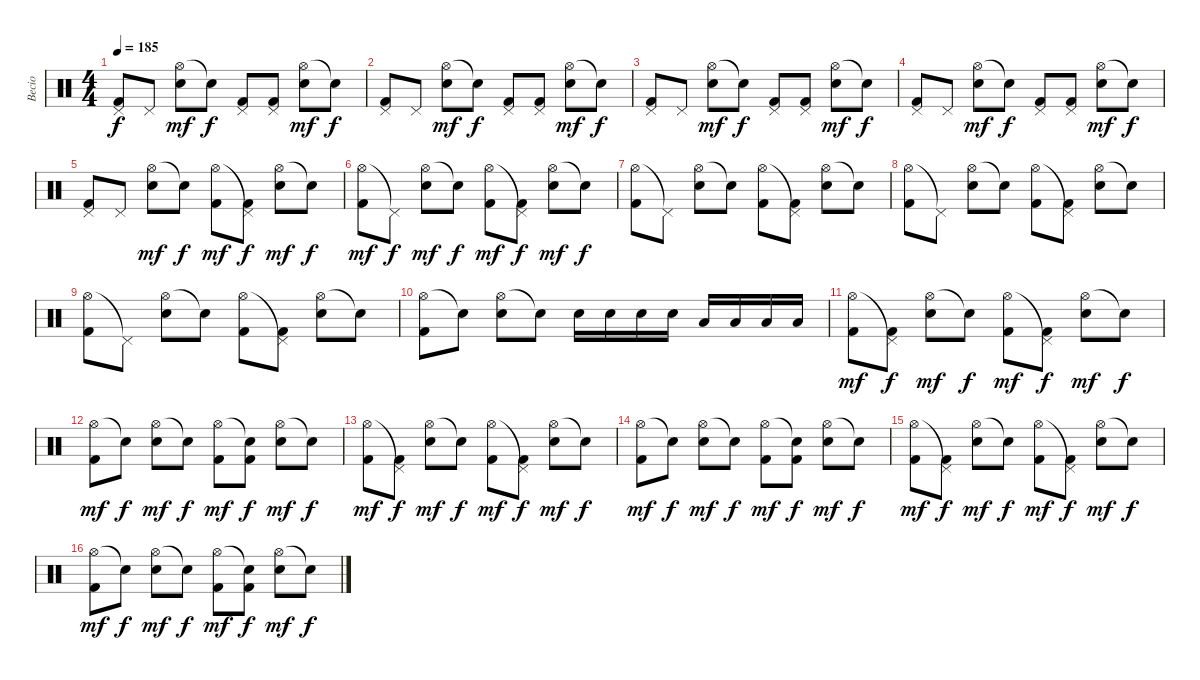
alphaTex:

\track ("Becio" "Becio") {instrument percussion}
\staff {score}
\articulation defaults
\ts (4 4)
\tempo 185
\clef neutral
\ks c
("Pedal Hi-Hat (hit)" "Kick (hit) 2").8{dy f} "Pedal Hi-Hat (hit)".8 ("Hi-Hat (open)" "Electric Snare (hit)").8{dy mf} "Snare (hit)"{t}.8{dy f} ("Pedal Hi-Hat (hit)" "Kick (hit) 2").8 ("Pedal Hi-Hat (hit)" "Kick (hit) 2").8 ("Hi-Hat (open)" "Electric Snare (hit)").8{dy mf} "Snare (hit)"{t}.8{dy f} |
("Pedal Hi-Hat (hit)" "Kick (hit) 2").8 "Pedal Hi-Hat (hit)".8 ("Hi-Hat (open)" "Electric Snare (hit)").8{dy mf} "Snare (hit)"{t}.8{dy f} ("Pedal Hi-Hat (hit)" "Kick (hit) 2").8 ("Pedal Hi-Hat (hit)" "Kick (hit) 2").8 ("Hi-Hat (open)" "Electric Snare (hit)").8{dy mf} "Snare (hit)"{t}.8{dy f} |
("Pedal Hi-Hat (hit)" "Kick (hit) 2").8 "Pedal Hi-Hat (hit)".8 ("Hi-Hat (open)" "Electric Snare (hit)").8{dy mf} "Snare (hit)"{t}.8{dy f} ("Pedal Hi-Hat (hit)" "Kick (hit) 2").8 ("Pedal Hi-Hat (hit)" "Kick (hit) 2").8 ("Hi-Hat (open)" "Electric Snare (hit)").8{dy mf} "Snare (hit)"{t}.8{dy f} |
("Pedal Hi-Hat (hit)" "Kick (hit) 2").8 "Pedal Hi-Hat (hit)".8 ("Hi-Hat (open)" "Electric Snare (hit)").8{dy mf} "Snare (hit)"{t}.8{dy f} ("Pedal Hi-Hat (hit)" "Kick (hit) 2").8 ("Pedal Hi-Hat (hit)" "Kick (hit) 2").8 ("Hi-Hat (open)" "Electric Snare (hit)").8{dy mf} "Snare (hit)"{t}.8{dy f} |
("Pedal Hi-Hat (hit)" "Kick (hit) 2").8 "Pedal Hi-Hat (hit)".8 ("Hi-Hat (open)" "Electric Snare (hit)").8{dy mf} "Snare (hit)"{t}.8{dy f} ("Hi-Hat (open)" "Kick (hit) 2").8{dy mf} ("Pedal Hi-Hat (hit)"{t} "Kick (hit) 2").8{dy f} ("Hi-Hat (open)" "Electric Snare (hit)").8{dy mf} "Snare (hit)"{t}.8{dy f} |
("Hi-Hat (open)" "Kick (hit) 2").8{dy mf} "Pedal Hi-Hat (hit)"{t}.8{dy f} ("Hi-Hat (open)" "Electric Snare (hit)").8{dy mf} "Snare (hit)"{t}.8{dy f} ("Hi-Hat (open)" "Kick (hit) 2").8{dy mf} ("Pedal Hi-Hat (hit)"{t} "Kick (hit) 2").8{dy f} ("Hi-Hat (open)" "Electric Snare (hit)").8{dy mf} "Snare (hit)"{t}.8{dy f} |
("Hi-Hat (open)" "Kick (hit) 2").8 "Pedal Hi-Hat (hit)"{t}.8 ("Hi-Hat (open)" "Electric Snare (hit)").8 "Snare (hit)"{t}.8 ("Hi-Hat (open)" "Kick (hit) 2").8 ("Pedal Hi-Hat (hit)"{t} "Kick (hit) 2").8 ("Hi-Hat (open)" "Electric Snare (hit)").8 "Snare (hit)"{t}.8 |
("Hi-Hat (open)" "Kick (hit) 2").8 "Pedal Hi-Hat (hit)"{t}.8 ("Hi-Hat (open)" "Electric Snare (hit)").8 "Snare (hit)"{t}.8 ("Hi-Hat (open)" "Kick (hit) 2").8 ("Pedal Hi-Hat (hit)"{t} "Kick (hit) 2").8 ("Hi-Hat (open)" "Electric Snare (hit)").8 "Snare (hit)"{t}.8 |
("Hi-Hat (open)" "Kick (hit) 2").8 "Pedal Hi-Hat (hit)"{t}.8 ("Hi-Hat (open)" "Electric Snare (hit)").8 "Snare (hit)"{t}.8 ("Hi-Hat (open)" "Kick (hit) 2").8 ("Pedal Hi-Hat (hit)"{t} "Kick (hit) 2").8 ("Hi-Hat (open)" "Electric Snare (hit)").8 "Snare (hit)"{t}.8 |
("Hi-Hat (open)" "Kick (hit) 2").8 "Snare (hit)"{t}.8 ("Hi-Hat (open)" "Electric Snare (hit)").8 "Snare (hit)"{t}.8 "Electric Snare (hit)".16 "Electric Snare (hit)".16 "Electric Snare (hit)".16 "Electric Snare (hit)".16 "Low Tom (hit)".16 "Low Tom (hit)".16 "Low Tom (hit)".16 "Low Tom (hit)".16 |
("Hi-Hat (open)" "Kick (hit) 2").8{dy mf} ("Pedal Hi-Hat (hit)"{t} "Kick (hit) 2").8{dy f} ("Hi-Hat (open)" "Electric Snare (hit)").8{dy mf} "Snare (hit)"{t}.8{dy f} ("Hi-Hat (open)" "Kick (hit) 2").8{dy mf} ("Pedal Hi-Hat (hit)"{t} "Kick (hit) 2").8{dy f} ("Hi-Hat (open)" "Electric Snare (hit)").8{dy mf} "Snare (hit)"{t}.8{dy f} |
("Hi-Hat (open)" "Kick (hit) 2").8{dy mf} "Snare (hit)"{t}.8{dy f} ("Hi-Hat (open)" "Electric Snare (hit)").8{dy mf} "Snare (hit)"{t}.8{dy f} ("Hi-Hat (open)" "Kick (hit) 2").8{dy mf} ("Snare (hit)"{t} "Kick (hit) 2").8{dy f} ("Hi-Hat (open)" "Electric Snare (hit)").8{dy mf} "Snare (hit)"{t}.8{dy f} |
("Hi-Hat (open)" "Kick (hit) 2").8{dy mf} ("Pedal Hi-Hat (hit)"{t} "Kick (hit) 2").8{dy f} ("Hi-Hat (open)" "Electric Snare (hit)").8{dy mf} "Snare (hit)"{t}.8{dy f} ("Hi-Hat (open)" "Kick (hit) 2").8{dy mf} ("Pedal Hi-Hat (hit)"{t} "Kick (hit) 2").8{dy f} ("Hi-Hat (open)" "Electric Snare (hit)").8{dy mf} "Snare (hit)"{t}.8{dy f} |
("Hi-Hat (open)" "Kick (hit) 2").8{dy mf} "Snare (hit)"{t}.8{dy f} ("Hi-Hat (open)" "Electric Snare (hit)").8{dy mf} "Snare (hit)"{t}.8{dy f} ("Hi-Hat (open)" "Kick (hit) 2").8{dy mf} ("Snare (hit)"{t} "Kick (hit) 2").8{dy f} ("Hi-Hat (open)" "Electric Snare (hit)").8{dy mf} "Snare (hit)"{t}.8{dy f} |
("Hi-Hat (open)" "Kick (hit) 2").8{dy mf} ("Pedal Hi-Hat (hit)"{t} "Kick (hit) 2").8{dy f} ("Hi-Hat (open)" "Electric Snare (hit)").8{dy mf} "Snare (hit)"{t}.8{dy f} ("Hi-Hat (open)" "Kick (hit) 2").8{dy mf} ("Pedal Hi-Hat (hit)"{t} "Kick (hit) 2").8{dy f} ("Hi-Hat (open)" "Electric Snare (hit)").8{dy mf} "Snare (hit)"{t}.8{dy f} |
("Hi-Hat (open)" "Kick (hit) 2").8{dy mf} "Snare (hit)"{t}.8{dy f} ("Hi-Hat (open)" "Electric Snare (hit)").8{dy mf} "Snare (hit)"{t}.8{dy f} ("Hi-Hat (open)" "Kick (hit) 2").8{dy mf} ("Snare (hit)"{t} "Kick (hit) 2").8{dy f} ("Hi-Hat (open)" "Electric Snare (hit)").8{dy mf} "Snare (hit)"{t}.8{dy f}
